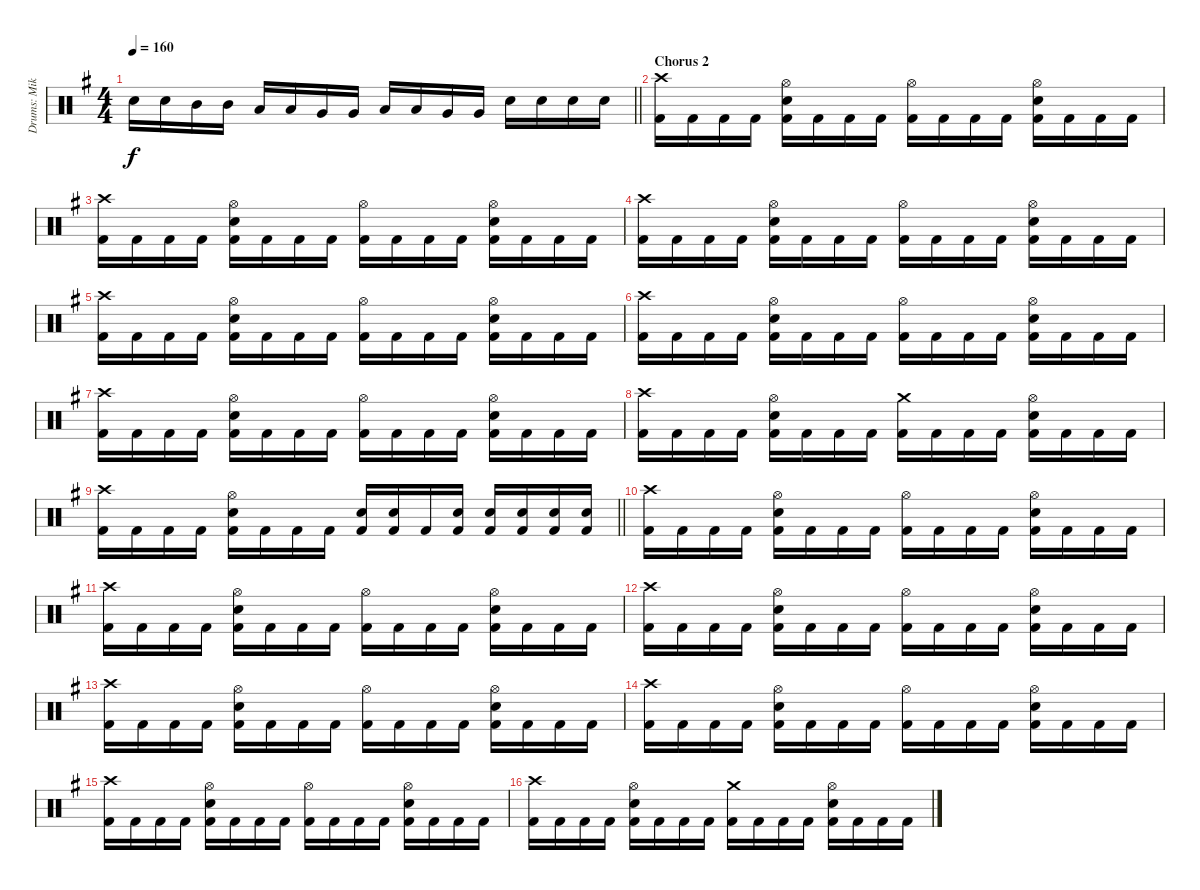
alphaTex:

\track ("Drums: Mikko Korsbäck" "Drums: Mik") {instrument percussion}
\staff {score}
\articulation defaults
\ts (4 4)
\tempo 160
\clef neutral
\barLineRight lightlight
\ks eminor "Electric Snare (hit)".16{dy f} "Electric Snare (hit)".16 "Mid Tom (hit)".16 "Mid Tom (hit)".16 "Low Tom (hit)".16 "Low Tom (hit)".16 "Very Low Tom (hit)".16 "Very Low Tom (hit)".16 "Low Tom (hit)".16 "Low Tom (hit)".16 "Very Low Tom (hit)".16 "Very Low Tom (hit)".16 "Electric Snare (hit)".16 "Electric Snare (hit)".16 "Electric Snare (hit)".16 "Electric Snare (hit)".16
|
\section ("" "Chorus 2")
("Crash high (hit)" "Kick (hit) 2").16 "Kick (hit) 2".16 "Kick (hit) 2".16 "Kick (hit) 2".16 ("Hi-Hat (open)" "Electric Snare (hit)" "Kick (hit) 2").16 "Kick (hit) 2".16 "Kick (hit) 2".16 "Kick (hit) 2".16 ("Hi-Hat (open)" "Kick (hit) 2").16 "Kick (hit) 2".16 "Kick (hit) 2".16 "Kick (hit) 2".16 ("Hi-Hat (open)" "Electric Snare (hit)" "Kick (hit) 2").16 "Kick (hit) 2".16 "Kick (hit) 2".16 "Kick (hit) 2".16 |
("Crash high (hit)" "Kick (hit) 2").16 "Kick (hit) 2".16 "Kick (hit) 2".16 "Kick (hit) 2".16 ("Hi-Hat (open)" "Electric Snare (hit)" "Kick (hit) 2").16 "Kick (hit) 2".16 "Kick (hit) 2".16 "Kick (hit) 2".16 ("Hi-Hat (open)" "Kick (hit) 2").16 "Kick (hit) 2".16 "Kick (hit) 2".16 "Kick (hit) 2".16 ("Hi-Hat (open)" "Electric Snare (hit)" "Kick (hit) 2").16 "Kick (hit) 2".16 "Kick (hit) 2".16 "Kick (hit) 2".16 |
("Crash high (hit)" "Kick (hit) 2").16 "Kick (hit) 2".16 "Kick (hit) 2".16 "Kick (hit) 2".16 ("Hi-Hat (open)" "Electric Snare (hit)" "Kick (hit) 2").16 "Kick (hit) 2".16 "Kick (hit) 2".16 "Kick (hit) 2".16 ("Hi-Hat (open)" "Kick (hit) 2").16 "Kick (hit) 2".16 "Kick (hit) 2".16 "Kick (hit) 2".16 ("Hi-Hat (open)" "Electric Snare (hit)" "Kick (hit) 2").16 "Kick (hit) 2".16 "Kick (hit) 2".16 "Kick (hit) 2".16 |
("Crash high (hit)" "Kick (hit) 2").16 "Kick (hit) 2".16 "Kick (hit) 2".16 "Kick (hit) 2".16 ("Hi-Hat (open)" "Electric Snare (hit)" "Kick (hit) 2").16 "Kick (hit) 2".16 "Kick (hit) 2".16 "Kick (hit) 2".16 ("Hi-Hat (open)" "Kick (hit) 2").16 "Kick (hit) 2".16 "Kick (hit) 2".16 "Kick (hit) 2".16 ("Hi-Hat (open)" "Electric Snare (hit)" "Kick (hit) 2").16 "Kick (hit) 2".16 "Kick (hit) 2".16 "Kick (hit) 2".16 |
("Crash high (hit)" "Kick (hit) 2").16 "Kick (hit) 2".16 "Kick (hit) 2".16 "Kick (hit) 2".16 ("Hi-Hat (open)" "Electric Snare (hit)" "Kick (hit) 2").16 "Kick (hit) 2".16 "Kick (hit) 2".16 "Kick (hit) 2".16 ("Hi-Hat (open)" "Kick (hit) 2").16 "Kick (hit) 2".16 "Kick (hit) 2".16 "Kick (hit) 2".16 ("Hi-Hat (open)" "Electric Snare (hit)" "Kick (hit) 2").16 "Kick (hit) 2".16 "Kick (hit) 2".16 "Kick (hit) 2".16 |
("Crash high (hit)" "Kick (hit) 2").16 "Kick (hit) 2".16 "Kick (hit) 2".16 "Kick (hit) 2".16 ("Hi-Hat (open)" "Electric Snare (hit)" "Kick (hit) 2").16 "Kick (hit) 2".16 "Kick (hit) 2".16 "Kick (hit) 2".16 ("Hi-Hat (open)" "Kick (hit) 2").16 "Kick (hit) 2".16 "Kick (hit) 2".16 "Kick (hit) 2".16 ("Hi-Hat (open)" "Electric Snare (hit)" "Kick (hit) 2").16 "Kick (hit) 2".16 "Kick (hit) 2".16 "Kick (hit) 2".16 |
("Crash high (hit)" "Kick (hit) 2").16 "Kick (hit) 2".16 "Kick (hit) 2".16 "Kick (hit) 2".16 ("Hi-Hat (open)" "Electric Snare (hit)" "Kick (hit) 2").16 "Kick (hit) 2".16 "Kick (hit) 2".16 "Kick (hit) 2".16 ("Crash medium (hit)" "Kick (hit) 2").16 "Kick (hit) 2".16 "Kick (hit) 2".16 "Kick (hit) 2".16 ("Hi-Hat (open)" "Electric Snare (hit)" "Kick (hit) 2").16 "Kick (hit) 2".16 "Kick (hit) 2".16 "Kick (hit) 2".16 |
\barLineRight lightlight
("Crash high (hit)" "Kick (hit) 2").16 "Kick (hit) 2".16 "Kick (hit) 2".16 "Kick (hit) 2".16 ("Hi-Hat (open)" "Electric Snare (hit)" "Kick (hit) 2").16 "Kick (hit) 2".16 "Kick (hit) 2".16 "Kick (hit) 2".16 ("Electric Snare (hit)" "Kick (hit) 2").16 ("Electric Snare (hit)" "Kick (hit) 2").16 "Kick (hit) 2".16 ("Electric Snare (hit)" "Kick (hit) 2").16 ("Electric Snare (hit)" "Kick (hit) 2").16 ("Electric Snare (hit)" "Kick (hit) 2").16 ("Electric Snare (hit)" "Kick (hit) 2").16 ("Electric Snare (hit)" "Kick (hit) 2").16 |
("Crash high (hit)" "Kick (hit) 2").16 "Kick (hit) 2".16 "Kick (hit) 2".16 "Kick (hit) 2".16 ("Hi-Hat (open)" "Electric Snare (hit)" "Kick (hit) 2").16 "Kick (hit) 2".16 "Kick (hit) 2".16 "Kick (hit) 2".16 ("Hi-Hat (open)" "Kick (hit) 2").16 "Kick (hit) 2".16 "Kick (hit) 2".16 "Kick (hit) 2".16 ("Hi-Hat (open)" "Electric Snare (hit)" "Kick (hit) 2").16 "Kick (hit) 2".16 "Kick (hit) 2".16 "Kick (hit) 2".16 |
("Crash high (hit)" "Kick (hit) 2").16 "Kick (hit) 2".16 "Kick (hit) 2".16 "Kick (hit) 2".16 ("Hi-Hat (open)" "Electric Snare (hit)" "Kick (hit) 2").16 "Kick (hit) 2".16 "Kick (hit) 2".16 "Kick (hit) 2".16 ("Hi-Hat (open)" "Kick (hit) 2").16 "Kick (hit) 2".16 "Kick (hit) 2".16 "Kick (hit) 2".16 ("Hi-Hat (open)" "Electric Snare (hit)" "Kick (hit) 2").16 "Kick (hit) 2".16 "Kick (hit) 2".16 "Kick (hit) 2".16 |
("Crash high (hit)" "Kick (hit) 2").16 "Kick (hit) 2".16 "Kick (hit) 2".16 "Kick (hit) 2".16 ("Hi-Hat (open)" "Electric Snare (hit)" "Kick (hit) 2").16 "Kick (hit) 2".16 "Kick (hit) 2".16 "Kick (hit) 2".16 ("Hi-Hat (open)" "Kick (hit) 2").16 "Kick (hit) 2".16 "Kick (hit) 2".16 "Kick (hit) 2".16 ("Hi-Hat (open)" "Electric Snare (hit)" "Kick (hit) 2").16 "Kick (hit) 2".16 "Kick (hit) 2".16 "Kick (hit) 2".16 |
("Crash high (hit)" "Kick (hit) 2").16 "Kick (hit) 2".16 "Kick (hit) 2".16 "Kick (hit) 2".16 ("Hi-Hat (open)" "Electric Snare (hit)" "Kick (hit) 2").16 "Kick (hit) 2".16 "Kick (hit) 2".16 "Kick (hit) 2".16 ("Hi-Hat (open)" "Kick (hit) 2").16 "Kick (hit) 2".16 "Kick (hit) 2".16 "Kick (hit) 2".16 ("Hi-Hat (open)" "Electric Snare (hit)" "Kick (hit) 2").16 "Kick (hit) 2".16 "Kick (hit) 2".16 "Kick (hit) 2".16 |
("Crash high (hit)" "Kick (hit) 2").16 "Kick (hit) 2".16 "Kick (hit) 2".16 "Kick (hit) 2".16 ("Hi-Hat (open)" "Electric Snare (hit)" "Kick (hit) 2").16 "Kick (hit) 2".16 "Kick (hit) 2".16 "Kick (hit) 2".16 ("Hi-Hat (open)" "Kick (hit) 2").16 "Kick (hit) 2".16 "Kick (hit) 2".16 "Kick (hit) 2".16 ("Hi-Hat (open)" "Electric Snare (hit)" "Kick (hit) 2").16 "Kick (hit) 2".16 "Kick (hit) 2".16 "Kick (hit) 2".16 |
("Crash high (hit)" "Kick (hit) 2").16 "Kick (hit) 2".16 "Kick (hit) 2".16 "Kick (hit) 2".16 ("Hi-Hat (open)" "Electric Snare (hit)" "Kick (hit) 2").16 "Kick (hit) 2".16 "Kick (hit) 2".16 "Kick (hit) 2".16 ("Hi-Hat (open)" "Kick (hit) 2").16 "Kick (hit) 2".16 "Kick (hit) 2".16 "Kick (hit) 2".16 ("Hi-Hat (open)" "Electric Snare (hit)" "Kick (hit) 2").16 "Kick (hit) 2".16 "Kick (hit) 2".16 "Kick (hit) 2".16 |
("Crash high (hit)" "Kick (hit) 2").16 "Kick (hit) 2".16 "Kick (hit) 2".16 "Kick (hit) 2".16 ("Hi-Hat (open)" "Electric Snare (hit)" "Kick (hit) 2").16 "Kick (hit) 2".16 "Kick (hit) 2".16 "Kick (hit) 2".16 ("Crash medium (hit)" "Kick (hit) 2").16 "Kick (hit) 2".16 "Kick (hit) 2".16 "Kick (hit) 2".16 ("Hi-Hat (open)" "Electric Snare (hit)" "Kick (hit) 2").16 "Kick (hit) 2".16 "Kick (hit) 2".16 "Kick (hit) 2".16
